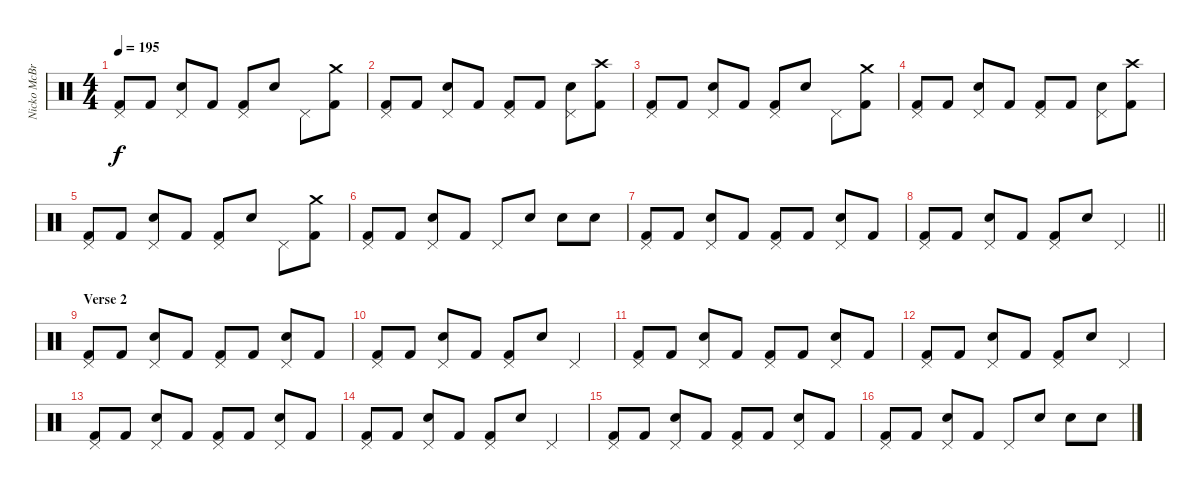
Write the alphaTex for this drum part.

\track ("Nicko McBrain" "Nicko McBr") {instrument percussion}
\staff {score}
\articulation defaults
\ts (4 4)
\tempo 195
\clef neutral
\ks c
("Pedal Hi-Hat (hit)" "Kick (hit) 2").8{dy f} "Kick (hit) 2".8 ("Pedal Hi-Hat (hit)" "Snare (hit) 2").8 "Kick (hit) 2".8 ("Pedal Hi-Hat (hit)" "Kick (hit) 2").8 "Snare (hit) 2".8 "Pedal Hi-Hat (hit)".8 ("Crash medium (hit)" "Kick (hit) 2").8 |
("Pedal Hi-Hat (hit)" "Kick (hit) 2").8 "Kick (hit) 2".8 ("Pedal Hi-Hat (hit)" "Snare (hit) 2").8 "Kick (hit) 2".8 ("Pedal Hi-Hat (hit)" "Kick (hit) 2").8 "Kick (hit) 2".8 ("Pedal Hi-Hat (hit)" "Snare (hit) 2").8 ("Crash high (hit)" "Kick (hit) 2").8 |
("Pedal Hi-Hat (hit)" "Kick (hit) 2").8 "Kick (hit) 2".8 ("Pedal Hi-Hat (hit)" "Snare (hit) 2").8 "Kick (hit) 2".8 ("Pedal Hi-Hat (hit)" "Kick (hit) 2").8 "Snare (hit) 2".8 "Pedal Hi-Hat (hit)".8 ("Crash medium (hit)" "Kick (hit) 2").8 |
("Pedal Hi-Hat (hit)" "Kick (hit) 2").8 "Kick (hit) 2".8 ("Pedal Hi-Hat (hit)" "Snare (hit) 2").8 "Kick (hit) 2".8 ("Pedal Hi-Hat (hit)" "Kick (hit) 2").8 "Kick (hit) 2".8 ("Pedal Hi-Hat (hit)" "Snare (hit) 2").8 ("Crash high (hit)" "Kick (hit) 2").8 |
("Pedal Hi-Hat (hit)" "Kick (hit) 2").8 "Kick (hit) 2".8 ("Pedal Hi-Hat (hit)" "Snare (hit) 2").8 "Kick (hit) 2".8 ("Pedal Hi-Hat (hit)" "Kick (hit) 2").8 "Snare (hit) 2".8 "Pedal Hi-Hat (hit)".8 ("Crash medium (hit)" "Kick (hit) 2").8 |
("Pedal Hi-Hat (hit)" "Kick (hit) 2").8 "Kick (hit) 2".8 ("Pedal Hi-Hat (hit)" "Snare (hit) 2").8 "Kick (hit) 2".8 "Pedal Hi-Hat (hit)".8 "Snare (hit) 2".8 "Snare (hit) 2".8 "Snare (hit) 2".8 |
("Pedal Hi-Hat (hit)" "Kick (hit) 2").8 "Kick (hit) 2".8 ("Pedal Hi-Hat (hit)" "Snare (hit) 2").8 "Kick (hit) 2".8 ("Pedal Hi-Hat (hit)" "Kick (hit) 2").8 "Kick (hit) 2".8 ("Pedal Hi-Hat (hit)" "Snare (hit) 2").8 "Kick (hit) 2".8 |
\barLineRight lightlight
("Pedal Hi-Hat (hit)" "Kick (hit) 2").8 "Kick (hit) 2".8 ("Pedal Hi-Hat (hit)" "Snare (hit) 2").8 "Kick (hit) 2".8 ("Pedal Hi-Hat (hit)" "Kick (hit) 2").8 "Snare (hit) 2".8 "Pedal Hi-Hat (hit)".4 |
\section ("" "Verse 2")
("Pedal Hi-Hat (hit)" "Kick (hit) 2").8 "Kick (hit) 2".8 ("Pedal Hi-Hat (hit)" "Snare (hit) 2").8 "Kick (hit) 2".8 ("Pedal Hi-Hat (hit)" "Kick (hit) 2").8 "Kick (hit) 2".8 ("Pedal Hi-Hat (hit)" "Snare (hit) 2").8 "Kick (hit) 2".8 |
("Pedal Hi-Hat (hit)" "Kick (hit) 2").8 "Kick (hit) 2".8 ("Pedal Hi-Hat (hit)" "Snare (hit) 2").8 "Kick (hit) 2".8 ("Pedal Hi-Hat (hit)" "Kick (hit) 2").8 "Snare (hit) 2".8 "Pedal Hi-Hat (hit)".4 |
("Pedal Hi-Hat (hit)" "Kick (hit) 2").8 "Kick (hit) 2".8 ("Pedal Hi-Hat (hit)" "Snare (hit) 2").8 "Kick (hit) 2".8 ("Pedal Hi-Hat (hit)" "Kick (hit) 2").8 "Kick (hit) 2".8 ("Pedal Hi-Hat (hit)" "Snare (hit) 2").8 "Kick (hit) 2".8 |
("Pedal Hi-Hat (hit)" "Kick (hit) 2").8 "Kick (hit) 2".8 ("Pedal Hi-Hat (hit)" "Snare (hit) 2").8 "Kick (hit) 2".8 ("Pedal Hi-Hat (hit)" "Kick (hit) 2").8 "Snare (hit) 2".8 "Pedal Hi-Hat (hit)".4 |
("Pedal Hi-Hat (hit)" "Kick (hit) 2").8 "Kick (hit) 2".8 ("Pedal Hi-Hat (hit)" "Snare (hit) 2").8 "Kick (hit) 2".8 ("Pedal Hi-Hat (hit)" "Kick (hit) 2").8 "Kick (hit) 2".8 ("Pedal Hi-Hat (hit)" "Snare (hit) 2").8 "Kick (hit) 2".8 |
("Pedal Hi-Hat (hit)" "Kick (hit) 2").8 "Kick (hit) 2".8 ("Pedal Hi-Hat (hit)" "Snare (hit) 2").8 "Kick (hit) 2".8 ("Pedal Hi-Hat (hit)" "Kick (hit) 2").8 "Snare (hit) 2".8 "Pedal Hi-Hat (hit)".4 |
("Pedal Hi-Hat (hit)" "Kick (hit) 2").8 "Kick (hit) 2".8 ("Pedal Hi-Hat (hit)" "Snare (hit) 2").8 "Kick (hit) 2".8 ("Pedal Hi-Hat (hit)" "Kick (hit) 2").8 "Kick (hit) 2".8 ("Pedal Hi-Hat (hit)" "Snare (hit) 2").8 "Kick (hit) 2".8 |
("Pedal Hi-Hat (hit)" "Kick (hit) 2").8 "Kick (hit) 2".8 ("Pedal Hi-Hat (hit)" "Snare (hit) 2").8 "Kick (hit) 2".8 "Pedal Hi-Hat (hit)".8 "Snare (hit) 2".8 "Snare (hit) 2".8 "Snare (hit) 2".8
